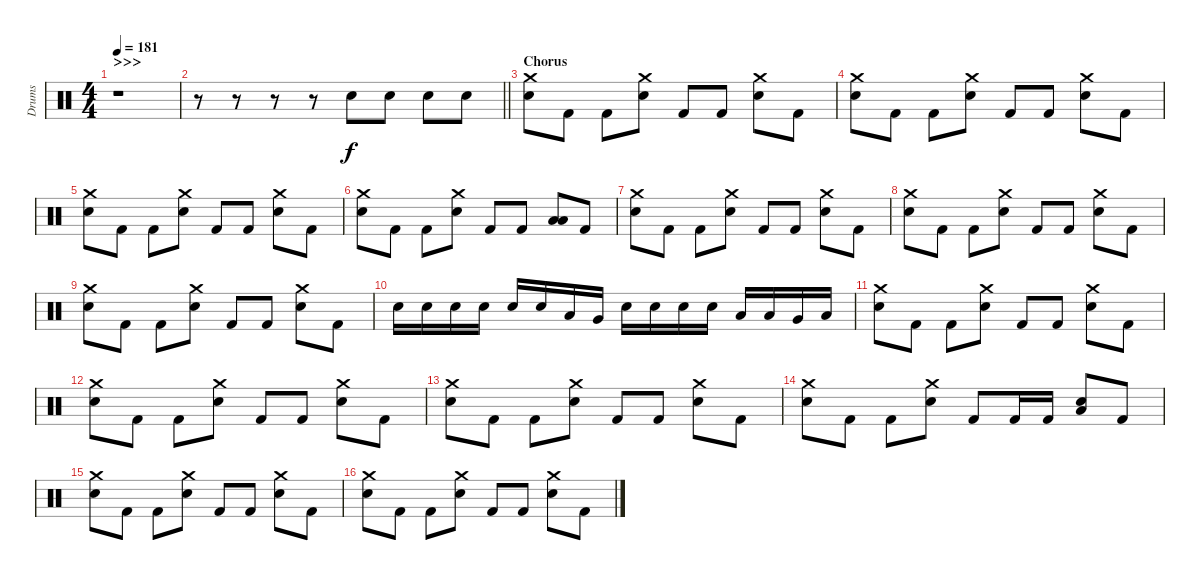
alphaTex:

\track ("Drums" "Drums") {instrument percussion}
\staff {score}
\articulation defaults
\ts (4 4)
\section ("" ">>>")
\tempo 181
\clef neutral
\ks c
r.1{dy f} |
\barLineRight lightlight
r.8 r.8 r.8 r.8 "Electric Snare (hit)".8 "Electric Snare (hit)".8 "Electric Snare (hit)".8 "Electric Snare (hit)".8 |
\section ("" "Chorus")
("Electric Snare (hit)" "Crash medium (hit)").8 "Kick (hit) 2".8 "Kick (hit) 2".8 ("Electric Snare (hit)" "Crash medium (hit)").8 "Kick (hit) 2".8 "Kick (hit) 2".8 ("Electric Snare (hit)" "Crash medium (hit)").8 "Kick (hit) 2".8 |
("Electric Snare (hit)" "Crash medium (hit)").8 "Kick (hit) 2".8 "Kick (hit) 2".8 ("Electric Snare (hit)" "Crash medium (hit)").8 "Kick (hit) 2".8 "Kick (hit) 2".8 ("Electric Snare (hit)" "Crash medium (hit)").8 "Kick (hit) 2".8 |
("Electric Snare (hit)" "Crash medium (hit)").8 "Kick (hit) 2".8 "Kick (hit) 2".8 ("Electric Snare (hit)" "Crash medium (hit)").8 "Kick (hit) 2".8 "Kick (hit) 2".8 ("Electric Snare (hit)" "Crash medium (hit)").8 "Kick (hit) 2".8 |
("Electric Snare (hit)" "Crash medium (hit)").8 "Kick (hit) 2".8 "Kick (hit) 2".8 ("Electric Snare (hit)" "Crash medium (hit)").8 "Kick (hit) 2".8 "Kick (hit) 2".8 ("Low Tom (hit)" "Low Floor Tom (hit)").8 "Kick (hit) 2".8 |
("Electric Snare (hit)" "Crash medium (hit)").8 "Kick (hit) 2".8 "Kick (hit) 2".8 ("Electric Snare (hit)" "Crash medium (hit)").8 "Kick (hit) 2".8 "Kick (hit) 2".8 ("Electric Snare (hit)" "Crash medium (hit)").8 "Kick (hit) 2".8 |
("Electric Snare (hit)" "Crash medium (hit)").8 "Kick (hit) 2".8 "Kick (hit) 2".8 ("Electric Snare (hit)" "Crash medium (hit)").8 "Kick (hit) 2".8 "Kick (hit) 2".8 ("Electric Snare (hit)" "Crash medium (hit)").8 "Kick (hit) 2".8 |
("Electric Snare (hit)" "Crash medium (hit)").8 "Kick (hit) 2".8 "Kick (hit) 2".8 ("Electric Snare (hit)" "Crash medium (hit)").8 "Kick (hit) 2".8 "Kick (hit) 2".8 ("Electric Snare (hit)" "Crash medium (hit)").8 "Kick (hit) 2".8 |
"Electric Snare (hit)".16 "Electric Snare (hit)".16 "Electric Snare (hit)".16 "Electric Snare (hit)".16 "Electric Snare (hit)".16 "Electric Snare (hit)".16 "Low Tom (hit)".16 "Very Low Tom (hit)".16 "Electric Snare (hit)".16 "Electric Snare (hit)".16 "Electric Snare (hit)".16 "Electric Snare (hit)".16 "Low Tom (hit)".16 "Low Tom (hit)".16 "Very Low Tom (hit)".16 "Low Floor Tom (hit)".16 |
("Electric Snare (hit)" "Crash medium (hit)").8 "Kick (hit) 2".8 "Kick (hit) 2".8 ("Electric Snare (hit)" "Crash medium (hit)").8 "Kick (hit) 2".8 "Kick (hit) 2".8 ("Electric Snare (hit)" "Crash medium (hit)").8 "Kick (hit) 2".8 |
("Electric Snare (hit)" "Crash medium (hit)").8 "Kick (hit) 2".8 "Kick (hit) 2".8 ("Electric Snare (hit)" "Crash medium (hit)").8 "Kick (hit) 2".8 "Kick (hit) 2".8 ("Electric Snare (hit)" "Crash medium (hit)").8 "Kick (hit) 2".8 |
("Electric Snare (hit)" "Crash medium (hit)").8 "Kick (hit) 2".8 "Kick (hit) 2".8 ("Electric Snare (hit)" "Crash medium (hit)").8 "Kick (hit) 2".8 "Kick (hit) 2".8 ("Electric Snare (hit)" "Crash medium (hit)").8 "Kick (hit) 2".8 |
("Electric Snare (hit)" "Crash medium (hit)").8 "Kick (hit) 2".8 "Kick (hit) 2".8 ("Electric Snare (hit)" "Crash medium (hit)").8 "Kick (hit) 2".8 "Kick (hit) 2".16 "Kick (hit) 2".16 ("Electric Snare (hit)" "Low Floor Tom (hit)").8 "Kick (hit) 2".8 |
("Electric Snare (hit)" "Crash medium (hit)").8 "Kick (hit) 2".8 "Kick (hit) 2".8 ("Electric Snare (hit)" "Crash medium (hit)").8 "Kick (hit) 2".8 "Kick (hit) 2".8 ("Electric Snare (hit)" "Crash medium (hit)").8 "Kick (hit) 2".8 |
("Electric Snare (hit)" "Crash medium (hit)").8 "Kick (hit) 2".8 "Kick (hit) 2".8 ("Electric Snare (hit)" "Crash medium (hit)").8 "Kick (hit) 2".8 "Kick (hit) 2".8 ("Electric Snare (hit)" "Crash medium (hit)").8 "Kick (hit) 2".8
